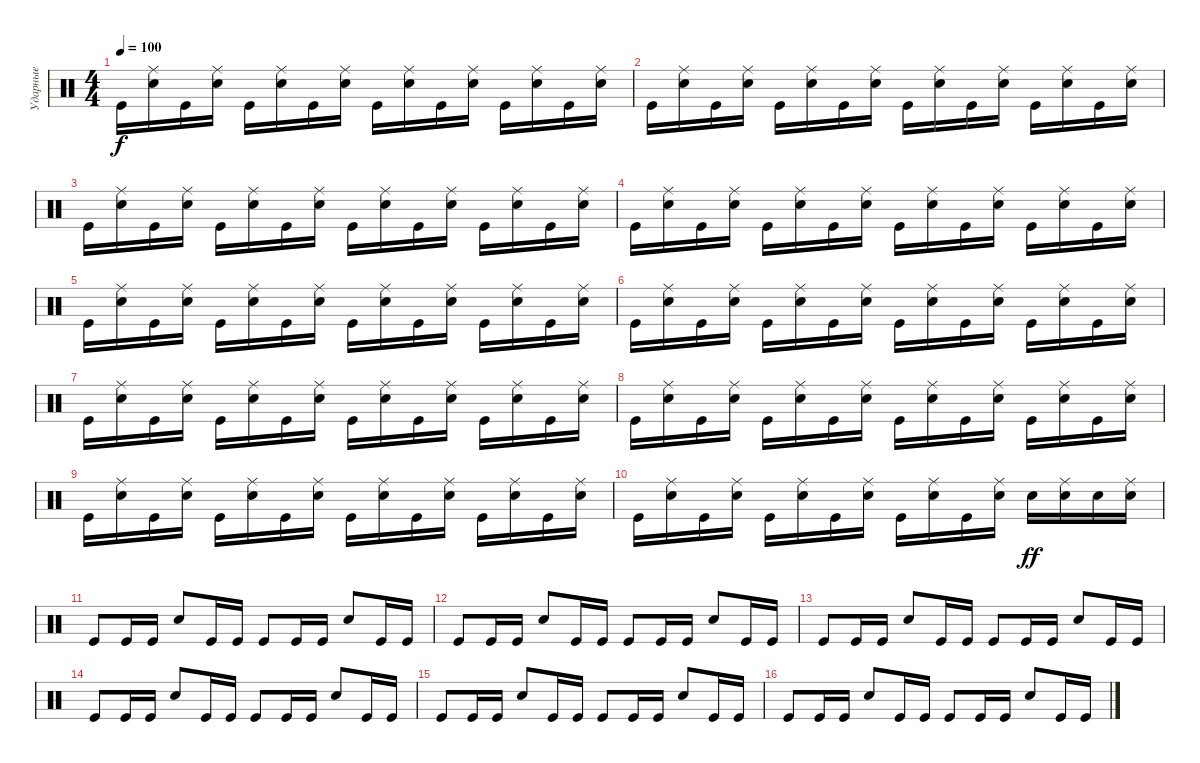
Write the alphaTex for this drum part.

\track ("Ударные" "Ударные") {instrument percussion}
\staff {score}
\articulation defaults
\ts (4 4)
\tempo 100
\clef neutral
\ks c "Kick (hit)".16{dy f}
("Ride (middle)" "Electric Snare (hit)").16 "Kick (hit)".16 ("Ride (middle)" "Electric Snare (hit)").16 "Kick (hit)".16 ("Ride (middle)" "Electric Snare (hit)").16 "Kick (hit)".16 ("Ride (middle)" "Electric Snare (hit)").16 "Kick (hit)".16 ("Ride (middle)" "Electric Snare (hit)").16 "Kick (hit)".16 ("Ride (middle)" "Electric Snare (hit)").16 "Kick (hit)".16 ("Ride (middle)" "Electric Snare (hit)").16 "Kick (hit)".16 ("Ride (middle)" "Electric Snare (hit)").16 |
"Kick (hit)".16 ("Ride (middle)" "Electric Snare (hit)").16 "Kick (hit)".16 ("Ride (middle)" "Electric Snare (hit)").16 "Kick (hit)".16 ("Ride (middle)" "Electric Snare (hit)").16 "Kick (hit)".16 ("Ride (middle)" "Electric Snare (hit)").16 "Kick (hit)".16 ("Ride (middle)" "Electric Snare (hit)").16 "Kick (hit)".16 ("Ride (middle)" "Electric Snare (hit)").16 "Kick (hit)".16 ("Ride (middle)" "Electric Snare (hit)").16 "Kick (hit)".16 ("Ride (middle)" "Electric Snare (hit)").16 |
"Kick (hit)".16 ("Ride (middle)" "Electric Snare (hit)").16 "Kick (hit)".16 ("Ride (middle)" "Electric Snare (hit)").16 "Kick (hit)".16 ("Ride (middle)" "Electric Snare (hit)").16 "Kick (hit)".16 ("Ride (middle)" "Electric Snare (hit)").16 "Kick (hit)".16 ("Ride (middle)" "Electric Snare (hit)").16 "Kick (hit)".16 ("Ride (middle)" "Electric Snare (hit)").16 "Kick (hit)".16 ("Ride (middle)" "Electric Snare (hit)").16 "Kick (hit)".16 ("Ride (middle)" "Electric Snare (hit)").16 |
"Kick (hit)".16 ("Ride (middle)" "Electric Snare (hit)").16 "Kick (hit)".16 ("Ride (middle)" "Electric Snare (hit)").16 "Kick (hit)".16 ("Ride (middle)" "Electric Snare (hit)").16 "Kick (hit)".16 ("Ride (middle)" "Electric Snare (hit)").16 "Kick (hit)".16 ("Ride (middle)" "Electric Snare (hit)").16 "Kick (hit)".16 ("Ride (middle)" "Electric Snare (hit)").16 "Kick (hit)".16 ("Ride (middle)" "Electric Snare (hit)").16 "Kick (hit)".16 ("Ride (middle)" "Electric Snare (hit)").16 |
"Kick (hit)".16 ("Ride (middle)" "Electric Snare (hit)").16 "Kick (hit)".16 ("Ride (middle)" "Electric Snare (hit)").16 "Kick (hit)".16 ("Ride (middle)" "Electric Snare (hit)").16 "Kick (hit)".16 ("Ride (middle)" "Electric Snare (hit)").16 "Kick (hit)".16 ("Ride (middle)" "Electric Snare (hit)").16 "Kick (hit)".16 ("Ride (middle)" "Electric Snare (hit)").16 "Kick (hit)".16 ("Ride (middle)" "Electric Snare (hit)").16 "Kick (hit)".16 ("Ride (middle)" "Electric Snare (hit)").16 |
"Kick (hit)".16 ("Ride (middle)" "Electric Snare (hit)").16 "Kick (hit)".16 ("Ride (middle)" "Electric Snare (hit)").16 "Kick (hit)".16 ("Ride (middle)" "Electric Snare (hit)").16 "Kick (hit)".16 ("Ride (middle)" "Electric Snare (hit)").16 "Kick (hit)".16 ("Ride (middle)" "Electric Snare (hit)").16 "Kick (hit)".16 ("Ride (middle)" "Electric Snare (hit)").16 "Kick (hit)".16 ("Ride (middle)" "Electric Snare (hit)").16 "Kick (hit)".16 ("Ride (middle)" "Electric Snare (hit)").16 |
"Kick (hit)".16 ("Ride (middle)" "Electric Snare (hit)").16 "Kick (hit)".16 ("Ride (middle)" "Electric Snare (hit)").16 "Kick (hit)".16 ("Ride (middle)" "Electric Snare (hit)").16 "Kick (hit)".16 ("Ride (middle)" "Electric Snare (hit)").16 "Kick (hit)".16 ("Ride (middle)" "Electric Snare (hit)").16 "Kick (hit)".16 ("Ride (middle)" "Electric Snare (hit)").16 "Kick (hit)".16 ("Ride (middle)" "Electric Snare (hit)").16 "Kick (hit)".16 ("Ride (middle)" "Electric Snare (hit)").16 |
"Kick (hit)".16 ("Ride (middle)" "Electric Snare (hit)").16 "Kick (hit)".16 ("Ride (middle)" "Electric Snare (hit)").16 "Kick (hit)".16 ("Ride (middle)" "Electric Snare (hit)").16 "Kick (hit)".16 ("Ride (middle)" "Electric Snare (hit)").16 "Kick (hit)".16 ("Ride (middle)" "Electric Snare (hit)").16 "Kick (hit)".16 ("Ride (middle)" "Electric Snare (hit)").16 "Kick (hit)".16 ("Ride (middle)" "Electric Snare (hit)").16 "Kick (hit)".16 ("Ride (middle)" "Electric Snare (hit)").16 |
"Kick (hit)".16 ("Ride (middle)" "Electric Snare (hit)").16 "Kick (hit)".16 ("Ride (middle)" "Electric Snare (hit)").16 "Kick (hit)".16 ("Ride (middle)" "Electric Snare (hit)").16 "Kick (hit)".16 ("Ride (middle)" "Electric Snare (hit)").16 "Kick (hit)".16 ("Ride (middle)" "Electric Snare (hit)").16 "Kick (hit)".16 ("Ride (middle)" "Electric Snare (hit)").16 "Kick (hit)".16 ("Ride (middle)" "Electric Snare (hit)").16 "Kick (hit)".16 ("Ride (middle)" "Electric Snare (hit)").16 |
"Kick (hit)".16 ("Ride (middle)" "Electric Snare (hit)").16 "Kick (hit)".16 ("Ride (middle)" "Electric Snare (hit)").16 "Kick (hit)".16 ("Ride (middle)" "Electric Snare (hit)").16 "Kick (hit)".16 ("Ride (middle)" "Electric Snare (hit)").16 "Kick (hit)".16 ("Ride (middle)" "Electric Snare (hit)").16 "Kick (hit)".16 ("Ride (middle)" "Electric Snare (hit)").16 "Electric Snare (hit)".16{dy ff} ("Ride (middle)" "Electric Snare (hit)").16 "Electric Snare (hit)".16 ("Ride (middle)" "Electric Snare (hit)").16 |
"Kick (hit)".8 "Kick (hit)".16 "Kick (hit)".16 "Electric Snare (hit)".8 "Kick (hit)".16 "Kick (hit)".16 "Kick (hit)".8 "Kick (hit)".16 "Kick (hit)".16 "Electric Snare (hit)".8 "Kick (hit)".16 "Kick (hit)".16 |
"Kick (hit)".8 "Kick (hit)".16 "Kick (hit)".16 "Electric Snare (hit)".8 "Kick (hit)".16 "Kick (hit)".16 "Kick (hit)".8 "Kick (hit)".16 "Kick (hit)".16 "Electric Snare (hit)".8 "Kick (hit)".16 "Kick (hit)".16 |
"Kick (hit)".8 "Kick (hit)".16 "Kick (hit)".16 "Electric Snare (hit)".8 "Kick (hit)".16 "Kick (hit)".16 "Kick (hit)".8 "Kick (hit)".16 "Kick (hit)".16 "Electric Snare (hit)".8 "Kick (hit)".16 "Kick (hit)".16 |
"Kick (hit)".8 "Kick (hit)".16 "Kick (hit)".16 "Electric Snare (hit)".8 "Kick (hit)".16 "Kick (hit)".16 "Kick (hit)".8 "Kick (hit)".16 "Kick (hit)".16 "Electric Snare (hit)".8 "Kick (hit)".16 "Kick (hit)".16 |
"Kick (hit)".8 "Kick (hit)".16 "Kick (hit)".16 "Electric Snare (hit)".8 "Kick (hit)".16 "Kick (hit)".16 "Kick (hit)".8 "Kick (hit)".16 "Kick (hit)".16 "Electric Snare (hit)".8 "Kick (hit)".16 "Kick (hit)".16 |
"Kick (hit)".8 "Kick (hit)".16 "Kick (hit)".16 "Electric Snare (hit)".8 "Kick (hit)".16 "Kick (hit)".16 "Kick (hit)".8 "Kick (hit)".16 "Kick (hit)".16 "Electric Snare (hit)".8 "Kick (hit)".16 "Kick (hit)".16
